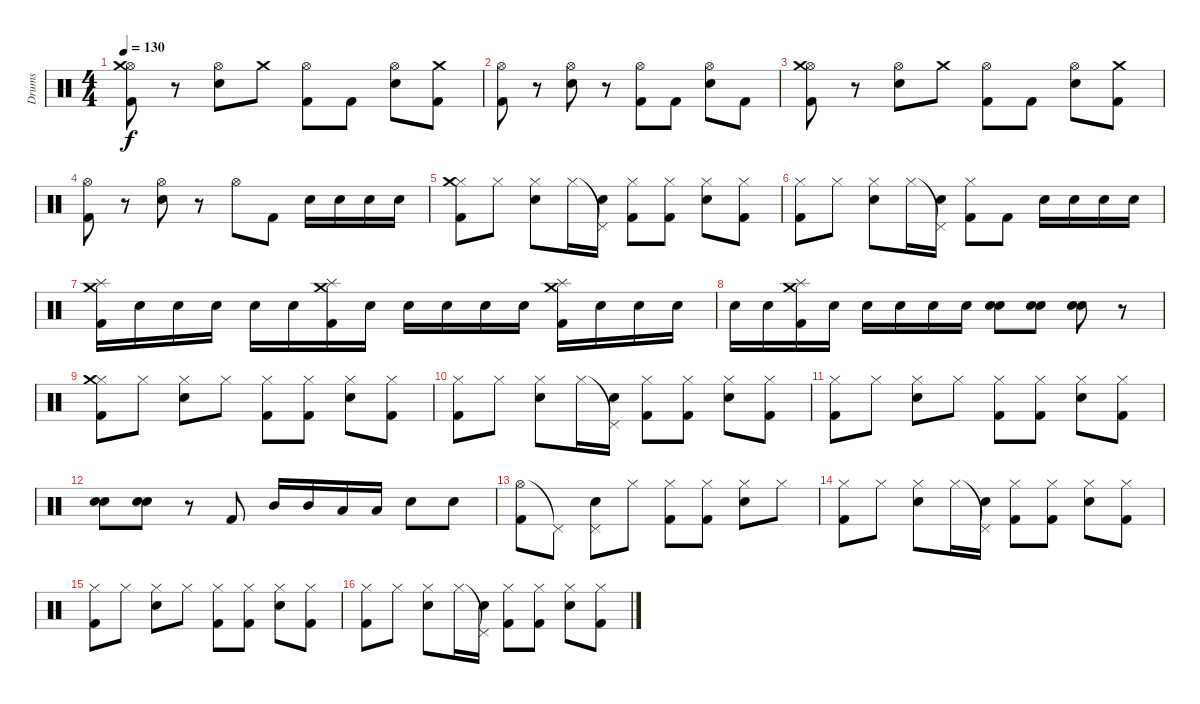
\track ("Drums" "Drums") {instrument percussion}
\staff {score}
\articulation defaults
\ts (4 4)
\tempo 130
\clef neutral
\ks c
("Hi-Hat (open)" "Kick (hit) 2" "Crash medium (hit)").8{dy f} r.8 ("Hi-Hat (open)" "Electric Snare (hit)").8 "Crash medium (hit)".8 ("Hi-Hat (open)" "Kick (hit) 2").8 "Kick (hit) 2".8 ("Hi-Hat (open)" "Electric Snare (hit)").8 ("Kick (hit) 2" "Crash medium (hit)").8 |
("Hi-Hat (open)" "Kick (hit) 2").8 r.8 ("Hi-Hat (open)" "Electric Snare (hit)").8 r.8 ("Hi-Hat (open)" "Kick (hit) 2").8 "Kick (hit) 2".8 ("Hi-Hat (open)" "Electric Snare (hit)").8 "Kick (hit) 2".8 |
("Hi-Hat (open)" "Kick (hit) 2" "Crash medium (hit)").8 r.8 ("Hi-Hat (open)" "Electric Snare (hit)").8 "Crash medium (hit)".8 ("Hi-Hat (open)" "Kick (hit) 2").8 "Kick (hit) 2".8 ("Hi-Hat (open)" "Electric Snare (hit)").8 ("Kick (hit) 2" "Crash medium (hit)").8 |
("Hi-Hat (open)" "Kick (hit) 2").8 r.8 ("Hi-Hat (open)" "Electric Snare (hit)").8 r.8 "Hi-Hat (open)".8 "Kick (hit) 2".8 "Electric Snare (hit)".16 "Electric Snare (hit)".16 "Electric Snare (hit)".16 "Electric Snare (hit)".16 |
("Hi-Hat (closed)" "Kick (hit) 2" "Crash medium (hit)").8 "Hi-Hat (closed)".8 ("Hi-Hat (closed)" "Electric Snare (hit)").8 "Hi-Hat (closed)".16 ("Pedal Hi-Hat (hit)"{t} "Electric Snare (hit)").16 ("Hi-Hat (closed)" "Kick (hit) 2").8 ("Hi-Hat (closed)" "Kick (hit) 2").8 ("Hi-Hat (closed)" "Electric Snare (hit)").8 ("Hi-Hat (closed)" "Kick (hit) 2").8 |
("Hi-Hat (closed)" "Kick (hit) 2").8 "Hi-Hat (closed)".8 ("Hi-Hat (closed)" "Electric Snare (hit)").8 "Hi-Hat (closed)".16 ("Pedal Hi-Hat (hit)"{t} "Electric Snare (hit)").16 ("Hi-Hat (closed)" "Kick (hit) 2").8 "Kick (hit) 2".8 "Electric Snare (hit)".16 "Electric Snare (hit)".16 "Electric Snare (hit)".16 "Electric Snare (hit)".16 |
("Crash medium (hit)" "Splash (hit)" "Kick (hit) 2").16 "Electric Snare (hit)".16 "Electric Snare (hit)".16 "Electric Snare (hit)".16 "Electric Snare (hit)".16 "Electric Snare (hit)".16 ("Crash medium (hit)" "Splash (hit)" "Kick (hit) 2").16 "Electric Snare (hit)".16 "Electric Snare (hit)".16 "Electric Snare (hit)".16 "Electric Snare (hit)".16 "Electric Snare (hit)".16 ("Crash medium (hit)" "Splash (hit)" "Kick (hit) 2").16 "Electric Snare (hit)".16 "Electric Snare (hit)".16 "Electric Snare (hit)".16 |
"Electric Snare (hit)".16 "Electric Snare (hit)".16 ("Crash medium (hit)" "Splash (hit)" "Kick (hit) 2").16 "Electric Snare (hit)".16 "Electric Snare (hit)".16 "Electric Snare (hit)".16 "Electric Snare (hit)".16 "Electric Snare (hit)".16 ("Electric Snare (hit)" "Electric Snare (hit)").8 ("Electric Snare (hit)" "Electric Snare (hit)").8 ("Electric Snare (hit)" "Electric Snare (hit)").8 r.8 |
("Hi-Hat (closed)" "Kick (hit) 2" "Crash medium (hit)").8 "Hi-Hat (closed)".8 ("Hi-Hat (closed)" "Electric Snare (hit)").8 "Hi-Hat (closed)".8 ("Hi-Hat (closed)" "Kick (hit) 2").8 ("Hi-Hat (closed)" "Kick (hit) 2").8 ("Hi-Hat (closed)" "Electric Snare (hit)").8 ("Hi-Hat (closed)" "Kick (hit) 2").8 |
("Hi-Hat (closed)" "Kick (hit) 2").8 "Hi-Hat (closed)".8 ("Hi-Hat (closed)" "Electric Snare (hit)").8 "Hi-Hat (closed)".16 ("Pedal Hi-Hat (hit)"{t} "Electric Snare (hit)").16 ("Hi-Hat (closed)" "Kick (hit) 2").8 ("Hi-Hat (closed)" "Kick (hit) 2").8 ("Hi-Hat (closed)" "Electric Snare (hit)").8 ("Hi-Hat (closed)" "Kick (hit) 2").8 |
("Hi-Hat (closed)" "Kick (hit) 2").8 "Hi-Hat (closed)".8 ("Hi-Hat (closed)" "Electric Snare (hit)").8 "Hi-Hat (closed)".8 ("Hi-Hat (closed)" "Kick (hit) 2").8 ("Hi-Hat (closed)" "Kick (hit) 2").8 ("Hi-Hat (closed)" "Electric Snare (hit)").8 ("Hi-Hat (closed)" "Kick (hit) 2").8 |
("Electric Snare (hit)" "Electric Snare (hit)").8 ("Electric Snare (hit)" "Electric Snare (hit)").8 r.8 "Kick (hit) 2".8 "Mid Tom (hit)".16 "Mid Tom (hit)".16 "Low Tom (hit)".16 "Low Tom (hit)".16 "Electric Snare (hit)".8 "Electric Snare (hit)".8 |
("Hi-Hat (open)" "Kick (hit) 2").8 "Pedal Hi-Hat (hit)"{t}.8 ("Pedal Hi-Hat (hit)" "Electric Snare (hit)").8 "Hi-Hat (closed)".8 ("Hi-Hat (closed)" "Kick (hit) 2").8 ("Hi-Hat (closed)" "Kick (hit) 2").8 ("Hi-Hat (closed)" "Electric Snare (hit)").8 "Hi-Hat (closed)".8 |
("Hi-Hat (closed)" "Kick (hit) 2").8 "Hi-Hat (closed)".8 ("Hi-Hat (closed)" "Electric Snare (hit)").8 "Hi-Hat (closed)".16 ("Pedal Hi-Hat (hit)"{t} "Electric Snare (hit)").16 ("Hi-Hat (closed)" "Kick (hit) 2").8 ("Hi-Hat (closed)" "Kick (hit) 2").8 ("Hi-Hat (closed)" "Electric Snare (hit)").8 ("Hi-Hat (closed)" "Kick (hit) 2").8 |
("Hi-Hat (closed)" "Kick (hit) 2").8 "Hi-Hat (closed)".8 ("Hi-Hat (closed)" "Electric Snare (hit)").8 "Hi-Hat (closed)".8 ("Hi-Hat (closed)" "Kick (hit) 2").8 ("Hi-Hat (closed)" "Kick (hit) 2").8 ("Hi-Hat (closed)" "Electric Snare (hit)").8 ("Hi-Hat (closed)" "Kick (hit) 2").8 |
("Hi-Hat (closed)" "Kick (hit) 2").8 "Hi-Hat (closed)".8 ("Hi-Hat (closed)" "Electric Snare (hit)").8 "Hi-Hat (closed)".16 ("Pedal Hi-Hat (hit)"{t} "Electric Snare (hit)").16 ("Hi-Hat (closed)" "Kick (hit) 2").8 ("Hi-Hat (closed)" "Kick (hit) 2").8 ("Hi-Hat (closed)" "Electric Snare (hit)").8 ("Hi-Hat (closed)" "Kick (hit) 2").8
